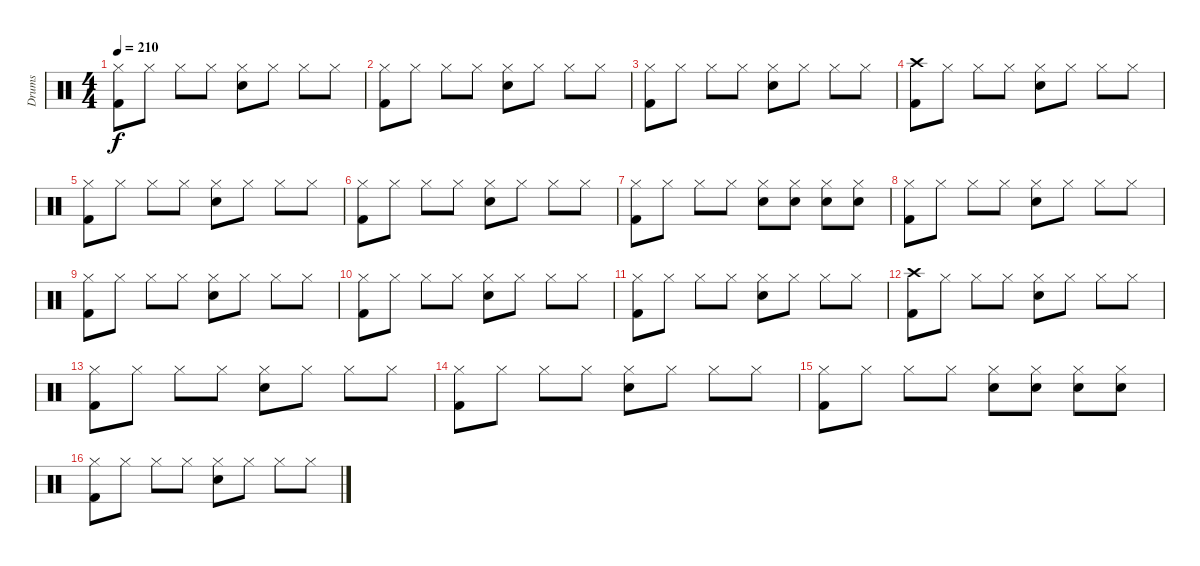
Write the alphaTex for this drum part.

\track ("Drums" "Drums") {instrument percussion}
\staff {score}
\articulation defaults
\ts (4 4)
\tempo 210
\clef neutral
\ks c
("Hi-Hat (closed)" "Kick (hit) 2").8{dy f} "Hi-Hat (closed)".8 "Hi-Hat (closed)".8 "Hi-Hat (closed)".8 ("Hi-Hat (closed)" "Electric Snare (hit)").8 "Hi-Hat (closed)".8 "Hi-Hat (closed)".8 "Hi-Hat (closed)".8 |
("Hi-Hat (closed)" "Kick (hit) 2").8 "Hi-Hat (closed)".8 "Hi-Hat (closed)".8 "Hi-Hat (closed)".8 ("Hi-Hat (closed)" "Electric Snare (hit)").8 "Hi-Hat (closed)".8 "Hi-Hat (closed)".8 "Hi-Hat (closed)".8 |
("Hi-Hat (closed)" "Kick (hit) 2").8 "Hi-Hat (closed)".8 "Hi-Hat (closed)".8 "Hi-Hat (closed)".8 ("Hi-Hat (closed)" "Electric Snare (hit)").8 "Hi-Hat (closed)".8 "Hi-Hat (closed)".8 "Hi-Hat (closed)".8 |
("Crash high (hit)" "Kick (hit) 2").8 "Hi-Hat (closed)".8 "Hi-Hat (closed)".8 "Hi-Hat (closed)".8 ("Hi-Hat (closed)" "Electric Snare (hit)").8 "Hi-Hat (closed)".8 "Hi-Hat (closed)".8 "Hi-Hat (closed)".8 |
("Hi-Hat (closed)" "Kick (hit) 2").8 "Hi-Hat (closed)".8 "Hi-Hat (closed)".8 "Hi-Hat (closed)".8 ("Hi-Hat (closed)" "Electric Snare (hit)").8 "Hi-Hat (closed)".8 "Hi-Hat (closed)".8 "Hi-Hat (closed)".8 |
("Hi-Hat (closed)" "Kick (hit) 2").8 "Hi-Hat (closed)".8 "Hi-Hat (closed)".8 "Hi-Hat (closed)".8 ("Hi-Hat (closed)" "Electric Snare (hit)").8 "Hi-Hat (closed)".8 "Hi-Hat (closed)".8 "Hi-Hat (closed)".8 |
("Hi-Hat (closed)" "Kick (hit) 2").8 "Hi-Hat (closed)".8 "Hi-Hat (closed)".8 "Hi-Hat (closed)".8 ("Hi-Hat (closed)" "Electric Snare (hit)").8 ("Hi-Hat (closed)" "Electric Snare (hit)").8 ("Hi-Hat (closed)" "Electric Snare (hit)").8 ("Hi-Hat (closed)" "Electric Snare (hit)").8 |
("Hi-Hat (closed)" "Kick (hit) 2").8 "Hi-Hat (closed)".8 "Hi-Hat (closed)".8 "Hi-Hat (closed)".8 ("Hi-Hat (closed)" "Electric Snare (hit)").8 "Hi-Hat (closed)".8 "Hi-Hat (closed)".8 "Hi-Hat (closed)".8 |
("Hi-Hat (closed)" "Kick (hit) 2").8 "Hi-Hat (closed)".8 "Hi-Hat (closed)".8 "Hi-Hat (closed)".8 ("Hi-Hat (closed)" "Electric Snare (hit)").8 "Hi-Hat (closed)".8 "Hi-Hat (closed)".8 "Hi-Hat (closed)".8 |
("Hi-Hat (closed)" "Kick (hit) 2").8 "Hi-Hat (closed)".8 "Hi-Hat (closed)".8 "Hi-Hat (closed)".8 ("Hi-Hat (closed)" "Electric Snare (hit)").8 "Hi-Hat (closed)".8 "Hi-Hat (closed)".8 "Hi-Hat (closed)".8 |
("Hi-Hat (closed)" "Kick (hit) 2").8 "Hi-Hat (closed)".8 "Hi-Hat (closed)".8 "Hi-Hat (closed)".8 ("Hi-Hat (closed)" "Electric Snare (hit)").8 "Hi-Hat (closed)".8 "Hi-Hat (closed)".8 "Hi-Hat (closed)".8 |
("Crash high (hit)" "Kick (hit) 2").8 "Hi-Hat (closed)".8 "Hi-Hat (closed)".8 "Hi-Hat (closed)".8 ("Hi-Hat (closed)" "Electric Snare (hit)").8 "Hi-Hat (closed)".8 "Hi-Hat (closed)".8 "Hi-Hat (closed)".8 |
("Hi-Hat (closed)" "Kick (hit) 2").8 "Hi-Hat (closed)".8 "Hi-Hat (closed)".8 "Hi-Hat (closed)".8 ("Hi-Hat (closed)" "Electric Snare (hit)").8 "Hi-Hat (closed)".8 "Hi-Hat (closed)".8 "Hi-Hat (closed)".8 |
("Hi-Hat (closed)" "Kick (hit) 2").8 "Hi-Hat (closed)".8 "Hi-Hat (closed)".8 "Hi-Hat (closed)".8 ("Hi-Hat (closed)" "Electric Snare (hit)").8 "Hi-Hat (closed)".8 "Hi-Hat (closed)".8 "Hi-Hat (closed)".8 |
("Hi-Hat (closed)" "Kick (hit) 2").8 "Hi-Hat (closed)".8 "Hi-Hat (closed)".8 "Hi-Hat (closed)".8 ("Hi-Hat (closed)" "Electric Snare (hit)").8 ("Hi-Hat (closed)" "Electric Snare (hit)").8 ("Hi-Hat (closed)" "Electric Snare (hit)").8 ("Hi-Hat (closed)" "Electric Snare (hit)").8 |
("Hi-Hat (closed)" "Kick (hit) 2").8 "Hi-Hat (closed)".8 "Hi-Hat (closed)".8 "Hi-Hat (closed)".8 ("Hi-Hat (closed)" "Electric Snare (hit)").8 "Hi-Hat (closed)".8 "Hi-Hat (closed)".8 "Hi-Hat (closed)".8
